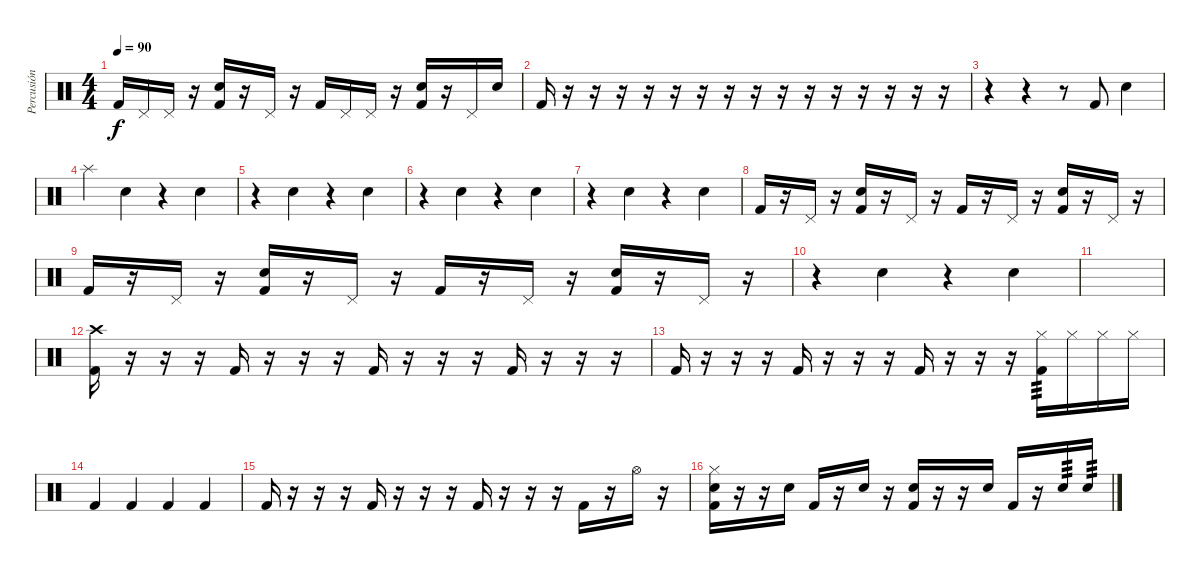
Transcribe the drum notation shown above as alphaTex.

\track ("Percusión" "Percusión") {instrument percussion}
\staff {score}
\articulation defaults
\ts (4 4)
\tempo 90
\clef neutral
\ks c "Kick (hit) 2".16{dy f} "Pedal Hi-Hat (hit)".16 "Pedal Hi-Hat (hit)".16
r.16 ("Electric Snare (hit)" "Kick (hit) 2").16 r.16 "Pedal Hi-Hat (hit)".16 r.16 "Kick (hit) 2".16 "Pedal Hi-Hat (hit)".16 "Pedal Hi-Hat (hit)".16 r.16 ("Electric Snare (hit)" "Kick (hit) 2").16 r.16 "Pedal Hi-Hat (hit)".16 "Electric Snare (hit)".16 |
"Kick (hit) 2".16 r.16 r.16 r.16 r.16 r.16 r.16 r.16 r.16 r.16 r.16 r.16 r.16 r.16 r.16 r.16 |
r.4 r.4 r.8 "Kick (hit) 2".8 "Electric Snare (hit)".4 |
"Splash (hit)".4 "Electric Snare (hit)".4 r.4 "Electric Snare (hit)".4 |
r.4 "Electric Snare (hit)".4 r.4 "Electric Snare (hit)".4 |
r.4 "Electric Snare (hit)".4 r.4 "Electric Snare (hit)".4 |
r.4 "Electric Snare (hit)".4 r.4 "Electric Snare (hit)".4 |
"Kick (hit) 2".16 r.16 "Pedal Hi-Hat (hit)".16 r.16 ("Electric Snare (hit)" "Kick (hit) 2").16 r.16 "Pedal Hi-Hat (hit)".16 r.16 "Kick (hit) 2".16 r.16 "Pedal Hi-Hat (hit)".16 r.16 ("Electric Snare (hit)" "Kick (hit) 2").16 r.16 "Pedal Hi-Hat (hit)".16 r.16 |
"Kick (hit) 2".16 r.16 "Pedal Hi-Hat (hit)".16 r.16 ("Electric Snare (hit)" "Kick (hit) 2").16 r.16 "Pedal Hi-Hat (hit)".16 r.16 "Kick (hit) 2".16 r.16 "Pedal Hi-Hat (hit)".16 r.16 ("Electric Snare (hit)" "Kick (hit) 2").16 r.16 "Pedal Hi-Hat (hit)".16 r.16 |
r.4 "Electric Snare (hit)".4 r.4 "Electric Snare (hit)".4 |
|
("Crash high (hit)" "Kick (hit) 2").16 r.16 r.16 r.16 "Kick (hit) 2".16 r.16 r.16 r.16 "Kick (hit) 2".16 r.16 r.16 r.16 "Kick (hit) 2".16 r.16 r.16 r.16 |
"Kick (hit) 2".16 r.16 r.16 r.16 "Kick (hit) 2".16 r.16 r.16 r.16 "Kick (hit) 2".16 r.16 r.16 r.16 ("Hi-Hat (closed)" "Kick (hit) 2").16{tp 3} "Hi-Hat (closed)".16 "Hi-Hat (closed)".16 "Hi-Hat (closed)".16 |
"Kick (hit) 2".4 "Kick (hit) 2".4 "Kick (hit) 2".4 "Kick (hit) 2".4 |
"Kick (hit) 2".16 r.16 r.16 r.16 "Kick (hit) 2".16 r.16 r.16 r.16 "Kick (hit) 2".16 r.16 r.16 r.16 "Kick (hit) 2".16 r.16 "Hi-Hat (open)".16 r.16 |
("Hi-Hat (closed)" "Electric Snare (hit)" "Kick (hit) 2").16 r.16 r.16 "Electric Snare (hit)".16 "Kick (hit) 2".16 r.16 "Electric Snare (hit)".16 r.16 ("Electric Snare (hit)" "Kick (hit) 2").16 r.16 r.16 "Electric Snare (hit)".16 "Kick (hit) 2".16 r.16 "Electric Snare (hit)".16{tp 3} "Electric Snare (hit)".16{tp 3}
